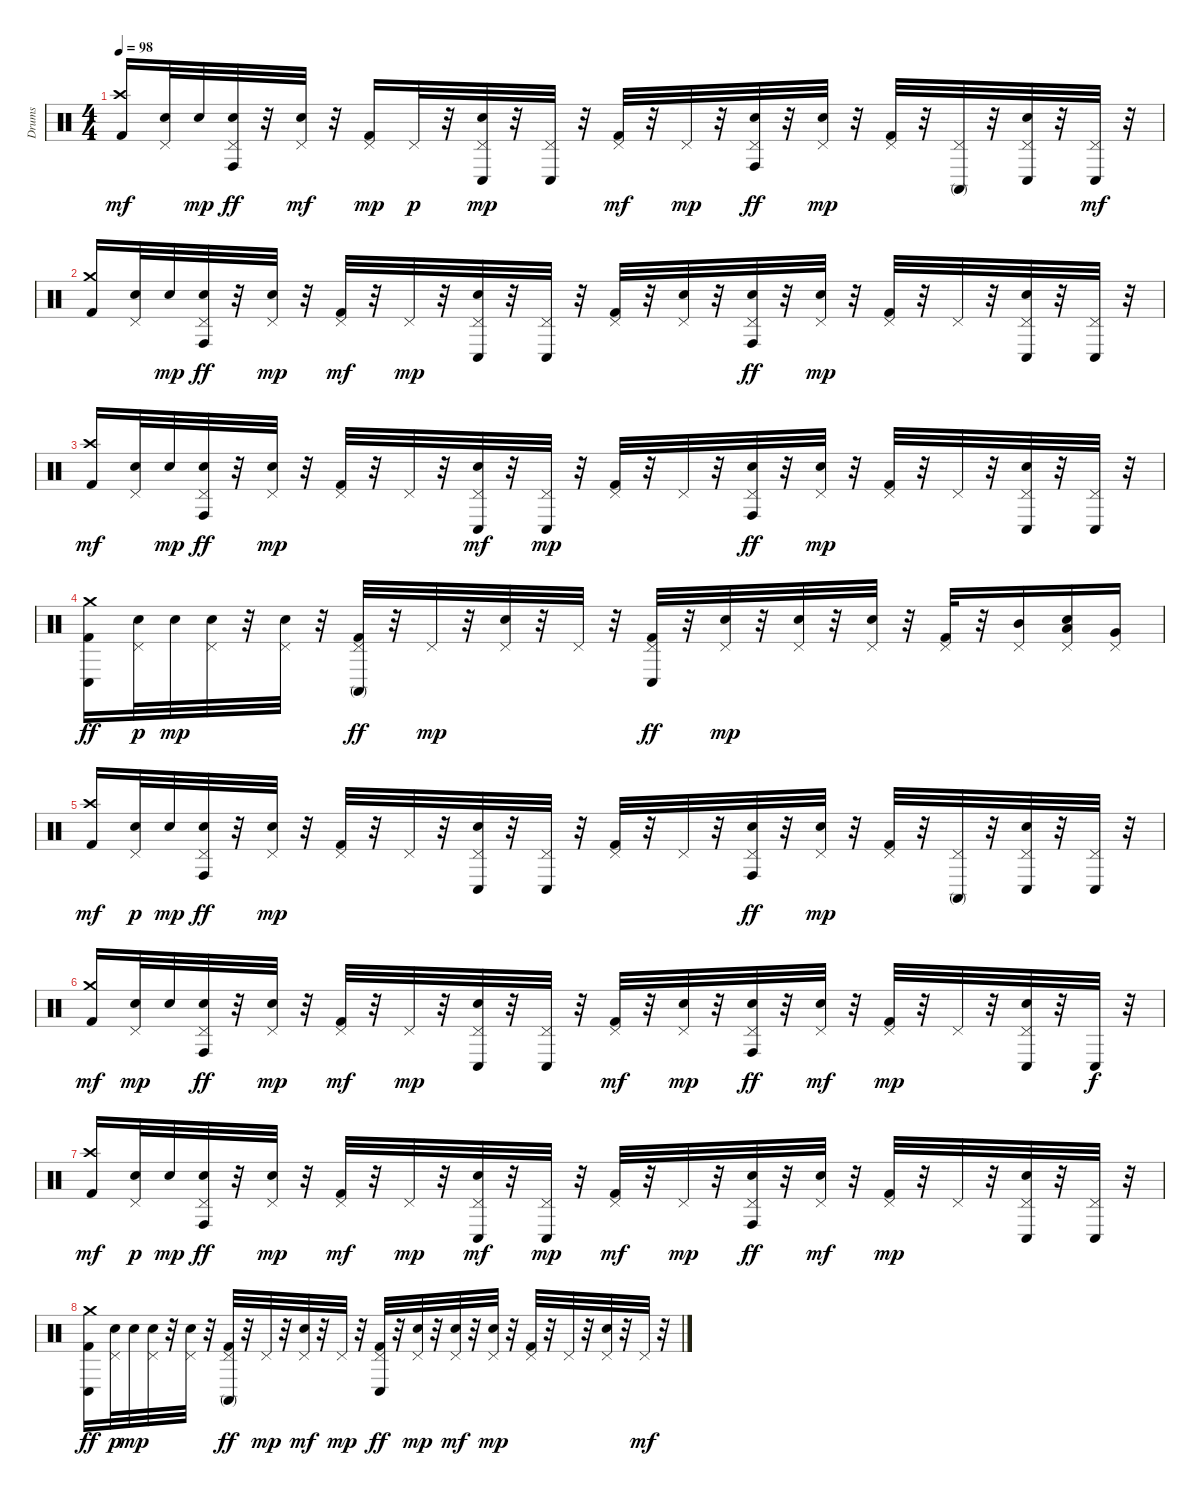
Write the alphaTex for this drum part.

\track ("Drums" "Drums") {instrument percussion}
\staff {score}
\articulation defaults
\ts (4 4)
\tempo 98
\clef neutral
\ks c
("Kick (hit) 2" "Crash high (hit)").16{dy mf} ("Electric Snare (hit)" "Pedal Hi-Hat (hit)").32 "Electric Snare (hit)".32{dy mp} ("Electric Snare (hit)" "Pedal Hi-Hat (hit)" "Conga high (hit)").32{dy ff} r.32 ("Electric Snare (hit)" "Pedal Hi-Hat (hit)").32{dy mf} r.32 ("Kick (hit) 2" "Pedal Hi-Hat (hit)").16{dy mp} "Pedal Hi-Hat (hit)".32{dy p} r.32 ("Electric Snare (hit)" "Pedal Hi-Hat (hit)" "Conga low (hit)").32{dy mp} r.32 ("Pedal Hi-Hat (hit)" "Conga low (hit)").32 r.32 ("Kick (hit) 2" "Pedal Hi-Hat (hit)").32{dy mf} r.32 "Pedal Hi-Hat (hit)".32{dy mp} r.32 ("Electric Snare (hit)" "Pedal Hi-Hat (hit)" "Conga high (hit)").32{dy ff} r.32 ("Electric Snare (hit)" "Pedal Hi-Hat (hit)").32{dy mp} r.32 ("Kick (hit) 2" "Pedal Hi-Hat (hit)").32 r.32 ("Pedal Hi-Hat (hit)" "Conga high (mute)").32 r.32 ("Electric Snare (hit)" "Pedal Hi-Hat (hit)" "Conga low (hit)").32 r.32 ("Pedal Hi-Hat (hit)" "Conga low (hit)").32{dy mf} r.32 |
("Kick (hit) 2" "Crash medium (hit)").16 ("Electric Snare (hit)" "Pedal Hi-Hat (hit)").32 "Electric Snare (hit)".32{dy mp} ("Electric Snare (hit)" "Pedal Hi-Hat (hit)" "Conga high (hit)").32{dy ff} r.32 ("Electric Snare (hit)" "Pedal Hi-Hat (hit)").32{dy mp} r.32 ("Kick (hit) 2" "Pedal Hi-Hat (hit)").32{dy mf} r.32 "Pedal Hi-Hat (hit)".32{dy mp} r.32 ("Electric Snare (hit)" "Pedal Hi-Hat (hit)" "Conga low (hit)").32 r.32 ("Pedal Hi-Hat (hit)" "Conga low (hit)").32 r.32 ("Kick (hit) 2" "Pedal Hi-Hat (hit)").32 r.32 ("Electric Snare (hit)" "Pedal Hi-Hat (hit)").32{volume 12} r.32 ("Electric Snare (hit)" "Pedal Hi-Hat (hit)" "Conga high (hit)").32{dy ff} r.32 ("Electric Snare (hit)" "Pedal Hi-Hat (hit)").32{dy mp} r.32 ("Kick (hit) 2" "Pedal Hi-Hat (hit)").32 r.32 "Pedal Hi-Hat (hit)".32 r.32 ("Electric Snare (hit)" "Pedal Hi-Hat (hit)" "Conga low (hit)").32 r.32 ("Pedal Hi-Hat (hit)" "Conga low (hit)").32 r.32 |
("Kick (hit) 2" "Crash high (hit)").16{dy mf} ("Electric Snare (hit)" "Pedal Hi-Hat (hit)").32 "Electric Snare (hit)".32{dy mp} ("Electric Snare (hit)" "Pedal Hi-Hat (hit)" "Conga high (hit)").32{dy ff} r.32 ("Electric Snare (hit)" "Pedal Hi-Hat (hit)").32{dy mp} r.32 ("Kick (hit) 2" "Pedal Hi-Hat (hit)").32 r.32 "Pedal Hi-Hat (hit)".32 r.32 ("Electric Snare (hit)" "Pedal Hi-Hat (hit)" "Conga low (hit)").32{dy mf} r.32 ("Pedal Hi-Hat (hit)" "Conga low (hit)").32{dy mp} r.32 ("Kick (hit) 2" "Pedal Hi-Hat (hit)").32 r.32 "Pedal Hi-Hat (hit)".32 r.32 ("Electric Snare (hit)" "Pedal Hi-Hat (hit)" "Conga high (hit)").32{dy ff} r.32 ("Electric Snare (hit)" "Pedal Hi-Hat (hit)").32{dy mp} r.32 ("Kick (hit) 2" "Pedal Hi-Hat (hit)").32 r.32 "Pedal Hi-Hat (hit)".32 r.32 ("Electric Snare (hit)" "Pedal Hi-Hat (hit)" "Conga low (hit)").32 r.32 ("Pedal Hi-Hat (hit)" "Conga low (hit)").32 r.32 |
("Kick (hit) 2" "Crash medium (hit)" "Conga low (hit)").16{dy ff} ("Electric Snare (hit)" "Pedal Hi-Hat (hit)").32{dy p} "Electric Snare (hit)".32{dy mp} ("Electric Snare (hit)" "Pedal Hi-Hat (hit)").32 r.32 ("Electric Snare (hit)" "Pedal Hi-Hat (hit)").32 r.32 ("Kick (hit) 2" "Pedal Hi-Hat (hit)" "Conga high (mute)").32{dy ff} r.32 "Pedal Hi-Hat (hit)".32{dy mp} r.32 ("Electric Snare (hit)" "Pedal Hi-Hat (hit)").32 r.32 "Pedal Hi-Hat (hit)".32 r.32 ("Kick (hit) 2" "Pedal Hi-Hat (hit)" "Conga low (hit)").32{dy ff} r.32 ("Electric Snare (hit)" "Pedal Hi-Hat (hit)").32{dy mp} r.32 ("Electric Snare (hit)" "Pedal Hi-Hat (hit)").32 r.32 ("Electric Snare (hit)" "Pedal Hi-Hat (hit)").32 r.32 ("Kick (hit) 2" "Pedal Hi-Hat (hit)").32 r.32 ("Pedal Hi-Hat (hit)" "Mid Tom (hit)").16 ("Electric Snare (hit)" "Pedal Hi-Hat (hit)" "Low Tom (hit)").16 ("Pedal Hi-Hat (hit)" "Very Low Tom (hit)").16 |
("Kick (hit) 2" "Crash high (hit)").16{dy mf} ("Electric Snare (hit)" "Pedal Hi-Hat (hit)").32{dy p} "Electric Snare (hit)".32{dy mp} ("Electric Snare (hit)" "Pedal Hi-Hat (hit)" "Conga high (hit)").32{dy ff} r.32 ("Electric Snare (hit)" "Pedal Hi-Hat (hit)").32{dy mp} r.32 ("Kick (hit) 2" "Pedal Hi-Hat (hit)").32 r.32 "Pedal Hi-Hat (hit)".32 r.32 ("Electric Snare (hit)" "Pedal Hi-Hat (hit)" "Conga low (hit)").32 r.32 ("Pedal Hi-Hat (hit)" "Conga low (hit)").32 r.32 ("Kick (hit) 2" "Pedal Hi-Hat (hit)").32 r.32 "Pedal Hi-Hat (hit)".32 r.32 ("Electric Snare (hit)" "Pedal Hi-Hat (hit)" "Conga high (hit)").32{dy ff} r.32 ("Electric Snare (hit)" "Pedal Hi-Hat (hit)").32{dy mp} r.32 ("Kick (hit) 2" "Pedal Hi-Hat (hit)").32 r.32 ("Pedal Hi-Hat (hit)" "Conga high (mute)").32 r.32 ("Electric Snare (hit)" "Pedal Hi-Hat (hit)" "Conga low (hit)").32 r.32 ("Pedal Hi-Hat (hit)" "Conga low (hit)").32 r.32 |
("Kick (hit) 2" "Crash medium (hit)").16{dy mf} ("Electric Snare (hit)" "Pedal Hi-Hat (hit)").32{dy mp} "Electric Snare (hit)".32 ("Electric Snare (hit)" "Pedal Hi-Hat (hit)" "Conga high (hit)").32{dy ff} r.32 ("Electric Snare (hit)" "Pedal Hi-Hat (hit)").32{dy mp} r.32 ("Kick (hit) 2" "Pedal Hi-Hat (hit)").32{dy mf} r.32 "Pedal Hi-Hat (hit)".32{dy mp} r.32 ("Electric Snare (hit)" "Pedal Hi-Hat (hit)" "Conga low (hit)").32 r.32 ("Pedal Hi-Hat (hit)" "Conga low (hit)").32 r.32 ("Kick (hit) 2" "Pedal Hi-Hat (hit)").32{dy mf} r.32 ("Electric Snare (hit)" "Pedal Hi-Hat (hit)").32{dy mp} r.32 ("Electric Snare (hit)" "Pedal Hi-Hat (hit)" "Conga high (hit)").32{dy ff} r.32 ("Electric Snare (hit)" "Pedal Hi-Hat (hit)").32{dy mf} r.32 ("Kick (hit) 2" "Pedal Hi-Hat (hit)").32{dy mp} r.32 "Pedal Hi-Hat (hit)".32 r.32 ("Electric Snare (hit)" "Pedal Hi-Hat (hit)" "Conga low (hit)").32 r.32 "Conga low (hit)".32{dy f} r.32 |
("Kick (hit) 2" "Crash high (hit)").16{dy mf} ("Electric Snare (hit)" "Pedal Hi-Hat (hit)").32{dy p} "Electric Snare (hit)".32{dy mp} ("Electric Snare (hit)" "Pedal Hi-Hat (hit)" "Conga high (hit)").32{dy ff} r.32 ("Electric Snare (hit)" "Pedal Hi-Hat (hit)").32{dy mp} r.32 ("Kick (hit) 2" "Pedal Hi-Hat (hit)").32{dy mf} r.32 "Pedal Hi-Hat (hit)".32{dy mp} r.32 ("Electric Snare (hit)" "Pedal Hi-Hat (hit)" "Conga low (hit)").32{dy mf} r.32 ("Pedal Hi-Hat (hit)" "Conga low (hit)").32{dy mp} r.32 ("Kick (hit) 2" "Pedal Hi-Hat (hit)").32{dy mf} r.32 "Pedal Hi-Hat (hit)".32{dy mp} r.32 ("Electric Snare (hit)" "Pedal Hi-Hat (hit)" "Conga high (hit)").32{dy ff} r.32 ("Electric Snare (hit)" "Pedal Hi-Hat (hit)").32{dy mf} r.32 ("Kick (hit) 2" "Pedal Hi-Hat (hit)").32{dy mp} r.32 "Pedal Hi-Hat (hit)".32 r.32 ("Electric Snare (hit)" "Pedal Hi-Hat (hit)" "Conga low (hit)").32 r.32 ("Pedal Hi-Hat (hit)" "Conga low (hit)").32 r.32 |
("Kick (hit) 2" "Crash medium (hit)" "Conga low (hit)").16{dy ff} ("Electric Snare (hit)" "Pedal Hi-Hat (hit)").32{dy p} "Electric Snare (hit)".32{dy mp} ("Electric Snare (hit)" "Pedal Hi-Hat (hit)").32 r.32 ("Electric Snare (hit)" "Pedal Hi-Hat (hit)").32 r.32 ("Kick (hit) 2" "Pedal Hi-Hat (hit)" "Conga high (mute)").32{dy ff} r.32 "Pedal Hi-Hat (hit)".32{dy mp} r.32 ("Electric Snare (hit)" "Pedal Hi-Hat (hit)").32{dy mf} r.32 "Pedal Hi-Hat (hit)".32{dy mp} r.32 ("Kick (hit) 2" "Pedal Hi-Hat (hit)" "Conga low (hit)").32{dy ff} r.32 ("Electric Snare (hit)" "Pedal Hi-Hat (hit)").32{dy mp} r.32 ("Electric Snare (hit)" "Pedal Hi-Hat (hit)").32{dy mf} r.32 ("Electric Snare (hit)" "Pedal Hi-Hat (hit)").32{dy mp} r.32 ("Kick (hit) 2" "Pedal Hi-Hat (hit)").32 r.32 "Pedal Hi-Hat (hit)".32 r.32 ("Electric Snare (hit)" "Pedal Hi-Hat (hit)").32 r.32 "Pedal Hi-Hat (hit)".32{dy mf} r.32
